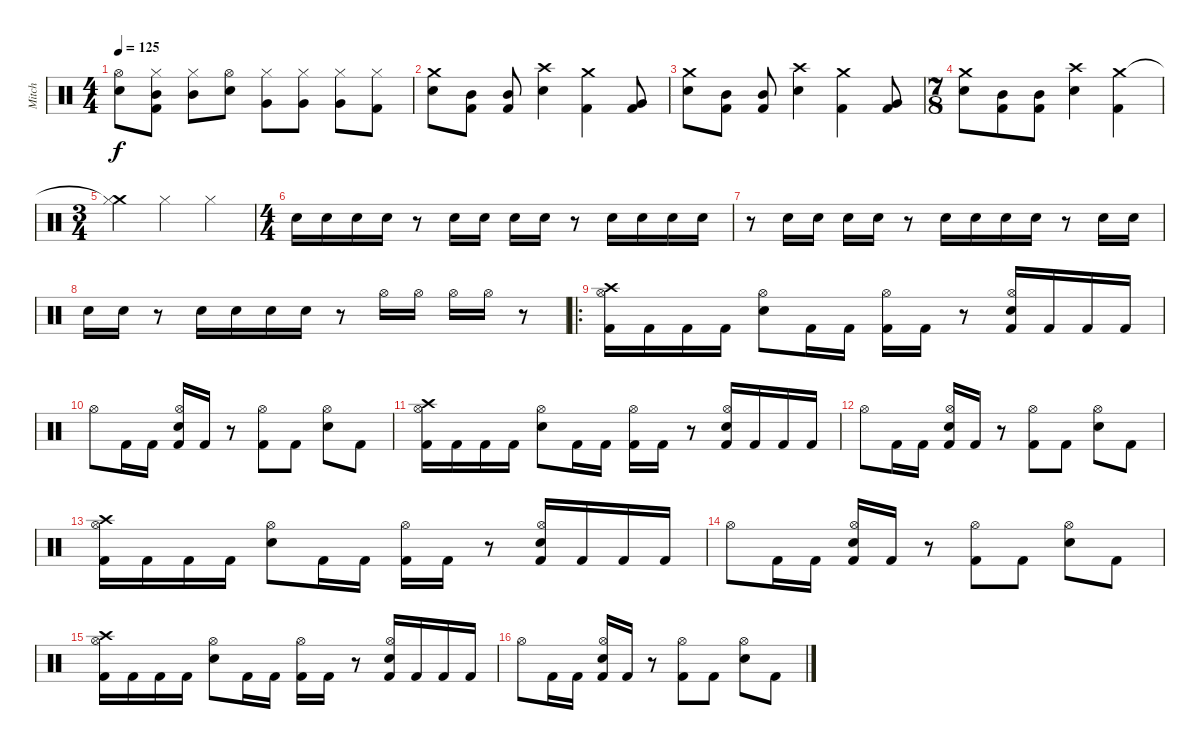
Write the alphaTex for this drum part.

\track ("Mitch" "Mitch") {instrument percussion}
\staff {score}
\articulation defaults
\ts (4 4)
\tempo 125
\clef neutral
\ks c
("Snare (hit) 2" "Hi-Hat (open)").8{dy f} ("Mid Tom (hit)" "Kick (hit) 2" "Hi-Hat (closed)").8 ("Mid Tom (hit)" "Hi-Hat (closed)").8 ("Snare (hit) 2" "Hi-Hat (open)").8 ("Very Low Tom (hit)" "Hi-Hat (closed)").8 ("Very Low Tom (hit)" "Hi-Hat (closed)").8 ("Very Low Tom (hit)" "Hi-Hat (closed)").8 ("Kick (hit) 2" "Hi-Hat (closed)").8 |
("Crash medium (hit)" "Snare (hit) 2").8 ("Mid Tom (hit)" "Kick (hit) 2").8 ("Mid Tom (hit)" "Kick (hit) 2").8 ("Crash high (hit)" "Snare (hit) 2").4 ("Crash medium (hit)" "Kick (hit) 2").4 ("Very Low Tom (hit)" "Kick (hit) 2").8 |
("Crash medium (hit)" "Snare (hit) 2").8 ("Mid Tom (hit)" "Kick (hit) 2").8 ("Mid Tom (hit)" "Kick (hit) 2").8 ("Crash high (hit)" "Snare (hit) 2").4 ("Crash medium (hit)" "Kick (hit) 2").4 ("Very Low Tom (hit)" "Kick (hit) 2").8 |
\ts (7 8)
("Crash medium (hit)" "Snare (hit) 2").8 ("Mid Tom (hit)" "Kick (hit) 2").8 ("Mid Tom (hit)" "Kick (hit) 2").8 ("Crash high (hit)" "Snare (hit) 2").4 ("Crash medium (hit)" "Kick (hit) 2").4 |
\ts (3 4)
("Crash medium (hit)"{t} "Hi-Hat (closed)").4 "Hi-Hat (closed)".4 "Hi-Hat (closed)".4 |
\ts (4 4)
"Snare (hit) 2".16 "Snare (hit) 2".16 "Snare (hit) 2".16 "Snare (hit) 2".16 r.8 "Snare (hit) 2".16 "Snare (hit) 2".16 "Snare (hit) 2".16 "Snare (hit) 2".16 r.8 "Snare (hit) 2".16 "Snare (hit) 2".16 "Snare (hit) 2".16 "Snare (hit) 2".16 |
r.8 "Snare (hit) 2".16 "Snare (hit) 2".16 "Snare (hit) 2".16 "Snare (hit) 2".16 r.8 "Snare (hit) 2".16 "Snare (hit) 2".16 "Snare (hit) 2".16 "Snare (hit) 2".16 r.8 "Snare (hit) 2".16 "Snare (hit) 2".16 |
"Snare (hit) 2".16 "Snare (hit) 2".16 r.8 "Snare (hit) 2".16 "Snare (hit) 2".16 "Snare (hit) 2".16 "Snare (hit) 2".16 r.8 "Hi-Hat (open)".16 "Hi-Hat (open)".16 "Hi-Hat (open)".16 "Hi-Hat (open)".16 r.8 |
\ro
("Crash high (hit)" "Kick (hit) 2" "Hi-Hat (open)").16 "Kick (hit) 2".16 "Kick (hit) 2".16 "Kick (hit) 2".16 ("Snare (hit) 2" "Hi-Hat (open)").8 "Kick (hit) 2".16 "Kick (hit) 2".16 ("Kick (hit) 2" "Hi-Hat (open)").16 "Kick (hit) 2".16 r.8 ("Snare (hit) 2" "Kick (hit) 2" "Hi-Hat (open)").16 "Kick (hit) 2".16 "Kick (hit) 2".16 "Kick (hit) 2".16 |
"Hi-Hat (open)".8 "Kick (hit) 2".16 "Kick (hit) 2".16 ("Snare (hit) 2" "Kick (hit) 2" "Hi-Hat (open)").16 "Kick (hit) 2".16 r.8 ("Kick (hit) 2" "Hi-Hat (open)").8 "Kick (hit) 2".8 ("Snare (hit) 2" "Hi-Hat (open)").8 "Kick (hit) 2".8 |
("Crash high (hit)" "Kick (hit) 2" "Hi-Hat (open)").16 "Kick (hit) 2".16 "Kick (hit) 2".16 "Kick (hit) 2".16 ("Snare (hit) 2" "Hi-Hat (open)").8 "Kick (hit) 2".16 "Kick (hit) 2".16 ("Kick (hit) 2" "Hi-Hat (open)").16 "Kick (hit) 2".16 r.8 ("Snare (hit) 2" "Kick (hit) 2" "Hi-Hat (open)").16 "Kick (hit) 2".16 "Kick (hit) 2".16 "Kick (hit) 2".16 |
"Hi-Hat (open)".8 "Kick (hit) 2".16 "Kick (hit) 2".16 ("Snare (hit) 2" "Kick (hit) 2" "Hi-Hat (open)").16 "Kick (hit) 2".16 r.8 ("Kick (hit) 2" "Hi-Hat (open)").8 "Kick (hit) 2".8 ("Snare (hit) 2" "Hi-Hat (open)").8 "Kick (hit) 2".8 |
("Crash high (hit)" "Kick (hit) 2" "Hi-Hat (open)").16 "Kick (hit) 2".16 "Kick (hit) 2".16 "Kick (hit) 2".16 ("Snare (hit) 2" "Hi-Hat (open)").8 "Kick (hit) 2".16 "Kick (hit) 2".16 ("Kick (hit) 2" "Hi-Hat (open)").16 "Kick (hit) 2".16 r.8 ("Snare (hit) 2" "Kick (hit) 2" "Hi-Hat (open)").16 "Kick (hit) 2".16 "Kick (hit) 2".16 "Kick (hit) 2".16 |
"Hi-Hat (open)".8 "Kick (hit) 2".16 "Kick (hit) 2".16 ("Snare (hit) 2" "Kick (hit) 2" "Hi-Hat (open)").16 "Kick (hit) 2".16 r.8 ("Kick (hit) 2" "Hi-Hat (open)").8 "Kick (hit) 2".8 ("Snare (hit) 2" "Hi-Hat (open)").8 "Kick (hit) 2".8 |
("Crash high (hit)" "Kick (hit) 2" "Hi-Hat (open)").16 "Kick (hit) 2".16 "Kick (hit) 2".16 "Kick (hit) 2".16 ("Snare (hit) 2" "Hi-Hat (open)").8 "Kick (hit) 2".16 "Kick (hit) 2".16 ("Kick (hit) 2" "Hi-Hat (open)").16 "Kick (hit) 2".16 r.8 ("Snare (hit) 2" "Kick (hit) 2" "Hi-Hat (open)").16 "Kick (hit) 2".16 "Kick (hit) 2".16 "Kick (hit) 2".16 |
"Hi-Hat (open)".8 "Kick (hit) 2".16 "Kick (hit) 2".16 ("Snare (hit) 2" "Kick (hit) 2" "Hi-Hat (open)").16 "Kick (hit) 2".16 r.8 ("Kick (hit) 2" "Hi-Hat (open)").8 "Kick (hit) 2".8 ("Snare (hit) 2" "Hi-Hat (open)").8 "Kick (hit) 2".8
